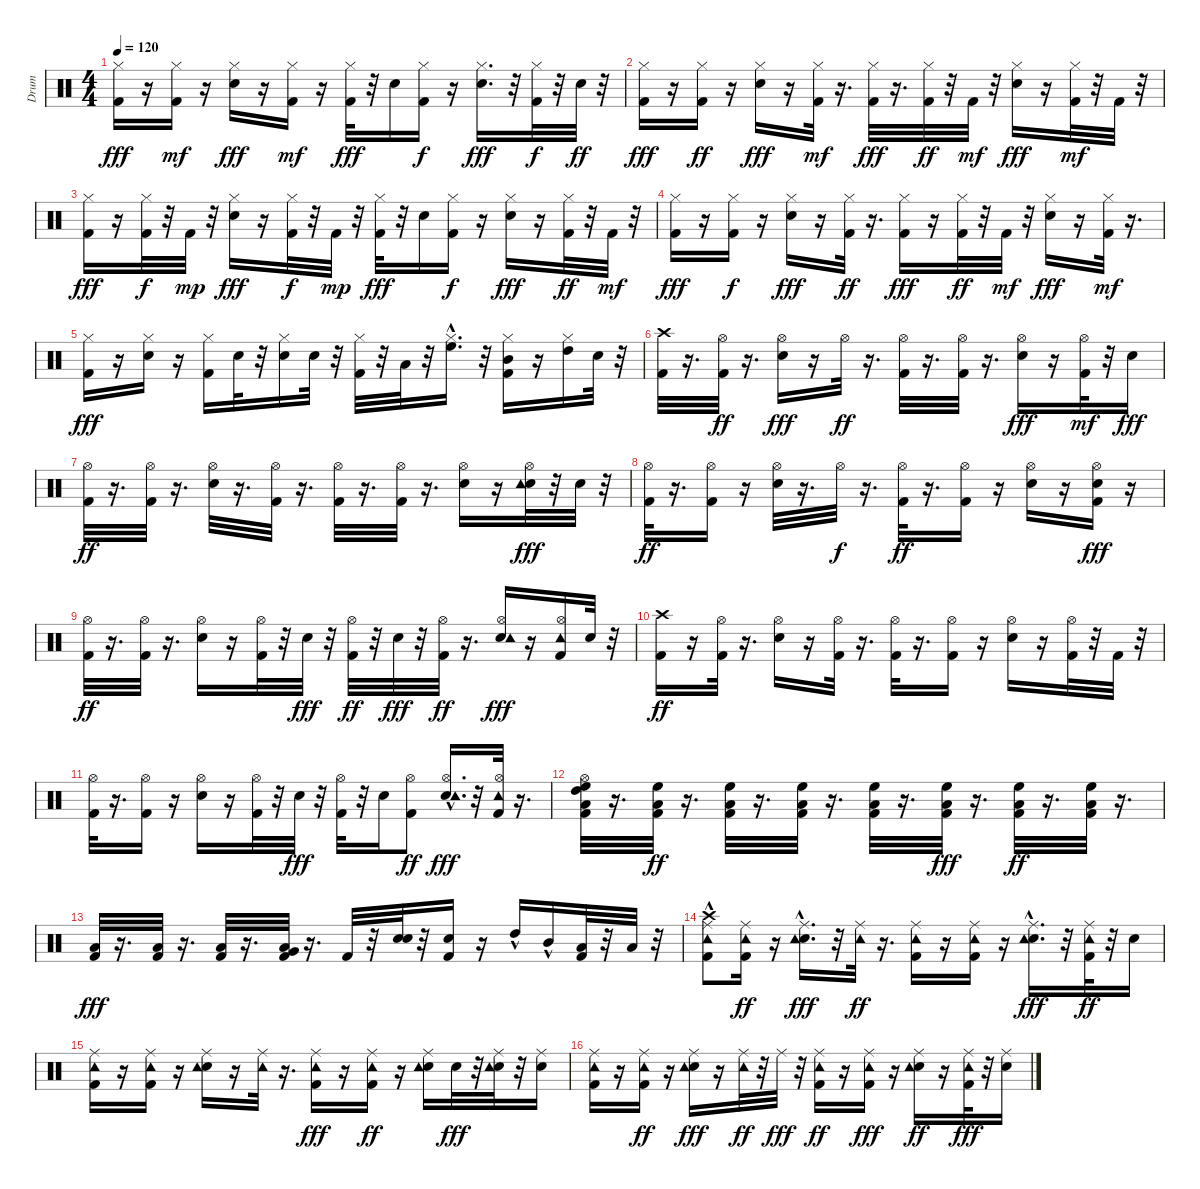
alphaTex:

\track ("Drum" "Drum") {instrument percussion}
\staff {score}
\articulation defaults
\ts (4 4)
\tempo 120
\clef neutral
\ks c
("Kick (hit) 2" "Hi-Hat (closed)").16{dy fff} r.16 ("Kick (hit) 2" "Hi-Hat (closed)").16{dy mf} r.16 ("Electric Snare (hit)" "Hi-Hat (closed)").16{dy fff} r.16 ("Kick (hit) 2" "Hi-Hat (closed)").16{dy mf} r.16 ("Kick (hit) 2" "Hi-Hat (closed)").32{dy fff} r.32 "Electric Snare (hit)".16 ("Kick (hit) 2" "Hi-Hat (closed)").16{dy f} r.16 ("Electric Snare (hit)" "Hi-Hat (closed)").16{d dy fff} r.32 ("Kick (hit) 2" "Hi-Hat (closed)").32{dy f} r.32 "Electric Snare (hit)".32{dy ff} r.32 |
("Kick (hit) 2" "Hi-Hat (closed)").16{dy fff} r.16 ("Kick (hit) 2" "Hi-Hat (closed)").16{dy ff} r.16 ("Electric Snare (hit)" "Hi-Hat (closed)").16{dy fff} r.16 ("Kick (hit) 2" "Hi-Hat (closed)").32{dy mf} r.16{d} ("Kick (hit) 2" "Hi-Hat (closed)").32{dy fff} r.16{d} ("Kick (hit) 2" "Hi-Hat (closed)").32{dy ff} r.32 "Kick (hit) 2".32{dy mf} r.32 ("Electric Snare (hit)" "Hi-Hat (closed)").16{dy fff} r.16 ("Kick (hit) 2" "Hi-Hat (closed)").32{dy mf} r.32 "Kick (hit) 2".32 r.32 |
("Kick (hit) 2" "Hi-Hat (closed)").16{dy fff} r.16 ("Kick (hit) 2" "Hi-Hat (closed)").32{dy f} r.32 "Kick (hit) 2".32{dy mp} r.32 ("Electric Snare (hit)" "Hi-Hat (closed)").16{dy fff} r.16 ("Kick (hit) 2" "Hi-Hat (closed)").32{dy f} r.32 "Kick (hit) 2".32{dy mp} r.32 ("Kick (hit) 2" "Hi-Hat (closed)").32{dy fff} r.32 "Electric Snare (hit)".16 ("Kick (hit) 2" "Hi-Hat (closed)").16{dy f} r.16 ("Electric Snare (hit)" "Hi-Hat (closed)").16{dy fff} r.16 ("Kick (hit) 2" "Hi-Hat (closed)").32{dy ff} r.32 "Kick (hit) 2".32{dy mf} r.32 |
("Kick (hit) 2" "Hi-Hat (closed)").16{dy fff} r.16 ("Kick (hit) 2" "Hi-Hat (closed)").16{dy f} r.16 ("Electric Snare (hit)" "Hi-Hat (closed)").16{dy fff} r.16 ("Kick (hit) 2" "Hi-Hat (closed)").32{dy ff} r.16{d} ("Kick (hit) 2" "Hi-Hat (closed)").16{dy fff} r.16 ("Kick (hit) 2" "Hi-Hat (closed)").32{dy ff} r.32 "Kick (hit) 2".32{dy mf} r.32 ("Electric Snare (hit)" "Hi-Hat (closed)").16{dy fff} r.16 ("Kick (hit) 2" "Hi-Hat (closed)").32{dy mf} r.16{d} |
("Kick (hit) 2" "Hi-Hat (closed)").16{dy fff} r.16 ("Electric Snare (hit)" "Hi-Hat (closed)").16 r.16 ("Kick (hit) 2" "Hi-Hat (closed)").16 "Electric Snare (hit)".32 r.32 ("Electric Snare (hit)" "Hi-Hat (closed)").16 "Electric Snare (hit)".32 r.32 ("Kick (hit) 2" "Hi-Hat (closed)").32 r.32 "Low Tom (hit)".32 r.32 ("Hi-Hat (closed)" "High Floor Tom (hit)"{hac}).16{d} r.32 ("Kick (hit) 2" "Hi-Hat (closed)" "Mid Tom (hit)").16 r.16 ("Hi-Hat (closed)" "High Tom (hit)").16 "Electric Snare (hit)".32 r.32 |
("Kick (hit) 2" "Crash high (hit)").32 r.16{d} ("Kick (hit) 2" "Hi-Hat (open)").32{dy ff} r.16{d} ("Electric Snare (hit)" "Hi-Hat (open)").16{dy fff} r.16 "Hi-Hat (open)".32{dy ff} r.16{d} ("Kick (hit) 2" "Hi-Hat (open)").32 r.16{d} ("Kick (hit) 2" "Hi-Hat (open)").32 r.16{d} ("Electric Snare (hit)" "Hi-Hat (open)").16{dy fff} r.16 ("Kick (hit) 2" "Hi-Hat (open)").32{dy mf} r.32 "Electric Snare (hit)".16{dy fff} |
("Kick (hit) 2" "Hi-Hat (open)").32{dy ff} r.16{d} ("Kick (hit) 2" "Hi-Hat (open)").32 r.16{d} ("Electric Snare (hit)" "Hi-Hat (open)").32 r.16{d} ("Kick (hit) 2" "Hi-Hat (open)").32 r.16{d} ("Kick (hit) 2" "Hi-Hat (open)").32 r.16{d} ("Kick (hit) 2" "Hi-Hat (open)").32 r.16{d} ("Electric Snare (hit)" "Hi-Hat (open)").16 r.16 ("Electric Snare (hit)" "Hi-Hat (open)" "Tambourine (hit)").32{dy fff} r.32 "Electric Snare (hit)".32 r.32 |
("Kick (hit) 2" "Hi-Hat (open)").32{dy ff} r.16{d} ("Kick (hit) 2" "Hi-Hat (open)").16 r.16 ("Electric Snare (hit)" "Hi-Hat (open)").32 r.16{d} "Hi-Hat (open)".32{dy f} r.16{d} ("Kick (hit) 2" "Hi-Hat (open)").32{dy ff} r.16{d} ("Kick (hit) 2" "Hi-Hat (open)").16 r.16 ("Electric Snare (hit)" "Hi-Hat (open)").16 r.16 ("Kick (hit) 2" "Electric Snare (hit)" "Hi-Hat (open)").16{dy fff} r.16 |
("Kick (hit) 2" "Hi-Hat (open)").32{dy ff} r.16{d} ("Kick (hit) 2" "Hi-Hat (open)").32 r.16{d} ("Electric Snare (hit)" "Hi-Hat (open)").16 r.16 ("Kick (hit) 2" "Hi-Hat (open)").32 r.32 "Electric Snare (hit)".32{dy fff} r.32 ("Kick (hit) 2" "Hi-Hat (open)").32{dy ff} r.32 "Electric Snare (hit)".32{dy fff} r.32 ("Kick (hit) 2" "Hi-Hat (open)").32{dy ff} r.16{d} ("Electric Snare (hit)" "Hi-Hat (open)" "Tambourine (hit)").16{dy fff} r.16 ("Kick (hit) 2" "Hi-Hat (open)" "Tambourine (hit)").16 "Electric Snare (hit)".32 r.32 |
("Kick (hit) 2" "Crash high (hit)").16{dy ff} r.16 ("Kick (hit) 2" "Hi-Hat (open)").32 r.16{d} ("Electric Snare (hit)" "Hi-Hat (open)").16 r.16 ("Kick (hit) 2" "Hi-Hat (open)").32 r.16{d} ("Kick (hit) 2" "Hi-Hat (open)").32 r.16{d} ("Kick (hit) 2" "Hi-Hat (open)").16 r.16 ("Electric Snare (hit)" "Hi-Hat (open)").16 r.16 ("Kick (hit) 2" "Hi-Hat (open)").32 r.32 "Kick (hit) 2".32 r.32 |
("Kick (hit) 2" "Hi-Hat (open)").32 r.16{d} ("Kick (hit) 2" "Hi-Hat (open)").16 r.16 ("Electric Snare (hit)" "Hi-Hat (open)").16 r.16 ("Kick (hit) 2" "Hi-Hat (open)").32 r.32 "Electric Snare (hit)".32{dy fff} r.32 ("Kick (hit) 2" "Hi-Hat (open)").32 r.32 "Electric Snare (hit)".16 ("Kick (hit) 2" "Hi-Hat (open)").8{dy ff} ("Electric Snare (hit)"{hac} "Hi-Hat (open)" "Tambourine (hit)").16{d dy fff} r.32 ("Kick (hit) 2" "Hi-Hat (open)" "Tambourine (hit)").32 r.16{d} |
("Kick (hit) 2" "Low Tom (hit)" "Hi-Hat (open)" "High Tom (hit)" "High Floor Tom (hit)").32 r.16{d} ("Kick (hit) 2" "Low Tom (hit)" "High Floor Tom (hit)").32{dy ff} r.16{d} ("Kick (hit) 2" "Low Tom (hit)" "High Floor Tom (hit)").32 r.16{d} ("Kick (hit) 2" "Low Tom (hit)" "High Floor Tom (hit)").32 r.16{d} ("Kick (hit) 2" "Low Tom (hit)" "High Floor Tom (hit)").32 r.16{d} ("Kick (hit) 2" "Low Tom (hit)" "High Floor Tom (hit)").32{dy fff} r.16{d} ("Kick (hit) 2" "Low Tom (hit)" "High Floor Tom (hit)").32{dy ff} r.16{d} ("Kick (hit) 2" "Low Tom (hit)" "High Floor Tom (hit)").32 r.16{d} |
("Kick (hit) 2" "Low Tom (hit)").32{dy fff} r.16{d} ("Kick (hit) 2" "Low Tom (hit)").32 r.16{d} ("Kick (hit) 2" "Low Tom (hit)").32 r.16{d} ("Kick (hit) 2" "Very Low Tom (hit)" "Low Tom (hit)").32 r.16{d} "Kick (hit) 2".32 r.32 ("Electric Snare (hit)" "Electric Snare (hit)").32 r.32 ("Kick (hit) 2" "Electric Snare (hit)").16 r.16 "High Tom (hit)"{hac}.16 "Mid Tom (hit)"{hac}.16 ("Kick (hit) 2" "Low Tom (hit)").32 r.32 "Low Tom (hit)".32 r.32 |
("Kick (hit) 2" "Crash high (hit)"{hac} "Ride (middle)" "Tambourine (hit)").8 ("Kick (hit) 2" "Ride (middle)" "Tambourine (hit)").16{dy ff} r.16 ("Electric Snare (hit)"{hac} "Ride (middle)" "Tambourine (hit)").16{d dy fff} r.32 ("Ride (middle)" "Tambourine (hit)").32{dy ff} r.16{d} ("Kick (hit) 2" "Ride (middle)" "Tambourine (hit)").16 r.16 ("Kick (hit) 2" "Ride (middle)" "Tambourine (hit)").16 r.16 ("Electric Snare (hit)"{hac} "Ride (middle)" "Tambourine (hit)").16{d dy fff} r.32 ("Kick (hit) 2" "Ride (middle)" "Tambourine (hit)").32{dy ff} r.32 "Electric Snare (hit)".16 |
("Kick (hit) 2" "Ride (middle)" "Tambourine (hit)").16 r.16 ("Kick (hit) 2" "Ride (middle)" "Tambourine (hit)").16 r.16 ("Electric Snare (hit)" "Ride (middle)" "Tambourine (hit)").16 r.16 ("Ride (middle)" "Tambourine (hit)").32 r.16{d} ("Kick (hit) 2" "Ride (middle)" "Tambourine (hit)").16{dy fff} r.16 ("Kick (hit) 2" "Ride (middle)" "Tambourine (hit)").16{dy ff} r.16 ("Electric Snare (hit)" "Ride (middle)" "Tambourine (hit)").16 "Electric Snare (hit)".32{dy fff} r.32 ("Electric Snare (hit)" "Ride (middle)" "Tambourine (hit)").32 r.32 ("Electric Snare (hit)" "Ride (middle)").16 |
("Kick (hit) 2" "Ride (middle)" "Tambourine (hit)").16 r.16 ("Kick (hit) 2" "Ride (middle)" "Tambourine (hit)").16{dy ff} r.16 ("Electric Snare (hit)" "Ride (middle)" "Tambourine (hit)").16{dy fff} r.16 ("Ride (middle)" "Tambourine (hit)").32{dy ff} r.32 "Ride (middle)".32{dy fff} r.32 ("Kick (hit) 2" "Ride (middle)" "Tambourine (hit)").16{dy ff} r.16 ("Kick (hit) 2" "Ride (middle)" "Tambourine (hit)").16{dy fff} r.16 ("Electric Snare (hit)" "Ride (middle)" "Tambourine (hit)").16{dy ff} r.16 ("Kick (hit) 2" "Ride (middle)" "Tambourine (hit)").32{dy fff} r.32 ("Electric Snare (hit)" "Ride (middle)").16
